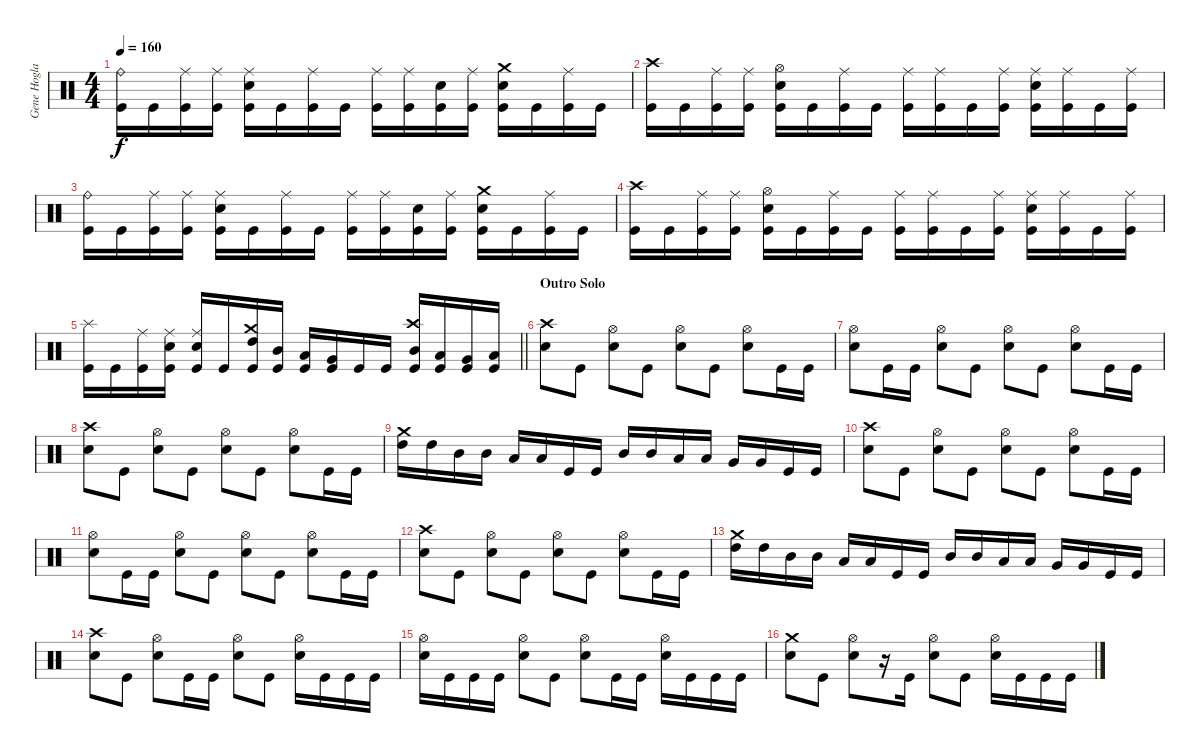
\track ("Gene Hoglan" "Gene Hogla") {instrument percussion}
\staff {score}
\articulation defaults
\ts (4 4)
\tempo 160
\clef neutral
\ks c
("Ride (bell)" "Kick (hit)").16{dy f} "Kick (hit)".16 ("Ride (middle)" "Kick (hit)").16 ("Ride (middle)" "Kick (hit)").16 ("Ride (middle)" "Electric Snare (hit)" "Kick (hit)").16 "Kick (hit)".16 ("Ride (middle)" "Kick (hit)").16 "Kick (hit)".16 ("Ride (middle)" "Kick (hit)").16 ("Ride (middle)" "Kick (hit)").16 ("Electric Snare (hit)" "Kick (hit)").16 ("Ride (middle)" "Kick (hit)").16 ("Crash medium (hit)" "Electric Snare (hit)" "Kick (hit)").16 "Kick (hit)".16 ("Ride (middle)" "Kick (hit)").16 "Kick (hit)".16 |
("Crash high (hit)" "Kick (hit)").16 "Kick (hit)".16 ("Ride (middle)" "Kick (hit)").16 ("Ride (middle)" "Kick (hit)").16 ("Hi-Hat (open)" "Electric Snare (hit)" "Kick (hit)").16 "Kick (hit)".16 ("Ride (middle)" "Kick (hit)").16 "Kick (hit)".16 ("Ride (middle)" "Kick (hit)").16 ("Ride (middle)" "Kick (hit)").16 "Kick (hit)".16 ("Ride (middle)" "Kick (hit)").16 ("Ride (middle)" "Electric Snare (hit)" "Kick (hit)").16 ("Ride (middle)" "Kick (hit)").16 "Kick (hit)".16 ("Ride (middle)" "Kick (hit)").16 |
("Ride (bell)" "Kick (hit)").16 "Kick (hit)".16 ("Ride (middle)" "Kick (hit)").16 ("Ride (middle)" "Kick (hit)").16 ("Ride (middle)" "Electric Snare (hit)" "Kick (hit)").16 "Kick (hit)".16 ("Ride (middle)" "Kick (hit)").16 "Kick (hit)".16 ("Ride (middle)" "Kick (hit)").16 ("Ride (middle)" "Kick (hit)").16 ("Electric Snare (hit)" "Kick (hit)").16 ("Ride (middle)" "Kick (hit)").16 ("Crash medium (hit)" "Electric Snare (hit)" "Kick (hit)").16 "Kick (hit)".16 ("Ride (middle)" "Kick (hit)").16 "Kick (hit)".16 |
("Crash high (hit)" "Kick (hit)").16 "Kick (hit)".16 ("Ride (middle)" "Kick (hit)").16 ("Ride (middle)" "Kick (hit)").16 ("Hi-Hat (open)" "Electric Snare (hit)" "Kick (hit)").16 "Kick (hit)".16 ("Ride (middle)" "Kick (hit)").16 "Kick (hit)".16 ("Ride (middle)" "Kick (hit)").16 ("Ride (middle)" "Kick (hit)").16 "Kick (hit)".16 ("Ride (middle)" "Kick (hit)").16 ("Ride (middle)" "Electric Snare (hit)" "Kick (hit)").16 ("Ride (middle)" "Kick (hit)").16 "Kick (hit)".16 ("Ride (middle)" "Kick (hit)").16 |
\barLineRight lightlight
("Splash (hit)" "Kick (hit)").16 "Kick (hit)".16 ("Ride (middle)" "Kick (hit)").16 ("Ride (middle)" "Electric Snare (hit)" "Kick (hit)").16 ("Ride (middle)" "Electric Snare (hit)" "Kick (hit)").16 "Kick (hit)".16 ("Crash medium (hit)" "High Tom (hit)" "Kick (hit)").16 ("Mid Tom (hit)" "Kick (hit)").16 ("Low Tom (hit)" "Kick (hit)").16 ("Very Low Tom (hit)" "Kick (hit)").16 "Kick (hit)".16 "Kick (hit)".16 ("Crash high (hit)" "Mid Tom (hit)" "Kick (hit)").16 ("Low Tom (hit)" "Kick (hit)").16 ("Very Low Tom (hit)" "Kick (hit)").16 ("Low Floor Tom (hit)" "Kick (hit)").16 |
\section ("" "Outro Solo")
("Crash high (hit)" "Electric Snare (hit)").8 "Kick (hit)".8 ("Hi-Hat (open)" "Electric Snare (hit)").8 "Kick (hit)".8 ("Hi-Hat (open)" "Electric Snare (hit)").8 "Kick (hit)".8 ("Hi-Hat (open)" "Electric Snare (hit)").8 "Kick (hit)".16 "Kick (hit)".16 |
("Hi-Hat (open)" "Electric Snare (hit)").8 "Kick (hit)".16 "Kick (hit)".16 ("Hi-Hat (open)" "Electric Snare (hit)").8 "Kick (hit)".8 ("Hi-Hat (open)" "Electric Snare (hit)").8 "Kick (hit)".8 ("Hi-Hat (open)" "Electric Snare (hit)").8 "Kick (hit)".16 "Kick (hit)".16 |
("Crash high (hit)" "Electric Snare (hit)").8 "Kick (hit)".8 ("Hi-Hat (open)" "Electric Snare (hit)").8 "Kick (hit)".8 ("Hi-Hat (open)" "Electric Snare (hit)").8 "Kick (hit)".8 ("Hi-Hat (open)" "Electric Snare (hit)").8 "Kick (hit)".16 "Kick (hit)".16 |
("Crash medium (hit)" "High Tom (hit)").16 "High Tom (hit)".16 "Mid Tom (hit)".16 "Mid Tom (hit)".16 "Low Tom (hit)".16 "Low Tom (hit)".16 "Kick (hit)".16 "Kick (hit)".16 "Mid Tom (hit)".16 "Mid Tom (hit)".16 "Low Tom (hit)".16 "Low Tom (hit)".16 "Very Low Tom (hit)".16 "Very Low Tom (hit)".16 "Kick (hit)".16 "Kick (hit)".16 |
("Crash high (hit)" "Electric Snare (hit)").8 "Kick (hit)".8 ("Hi-Hat (open)" "Electric Snare (hit)").8 "Kick (hit)".8 ("Hi-Hat (open)" "Electric Snare (hit)").8 "Kick (hit)".8 ("Hi-Hat (open)" "Electric Snare (hit)").8 "Kick (hit)".16 "Kick (hit)".16 |
("Hi-Hat (open)" "Electric Snare (hit)").8 "Kick (hit)".16 "Kick (hit)".16 ("Hi-Hat (open)" "Electric Snare (hit)").8 "Kick (hit)".8 ("Hi-Hat (open)" "Electric Snare (hit)").8 "Kick (hit)".8 ("Hi-Hat (open)" "Electric Snare (hit)").8 "Kick (hit)".16 "Kick (hit)".16 |
("Crash high (hit)" "Electric Snare (hit)").8 "Kick (hit)".8 ("Hi-Hat (open)" "Electric Snare (hit)").8 "Kick (hit)".8 ("Hi-Hat (open)" "Electric Snare (hit)").8 "Kick (hit)".8 ("Hi-Hat (open)" "Electric Snare (hit)").8 "Kick (hit)".16 "Kick (hit)".16 |
("Crash medium (hit)" "High Tom (hit)").16 "High Tom (hit)".16 "Mid Tom (hit)".16 "Mid Tom (hit)".16 "Low Tom (hit)".16 "Low Tom (hit)".16 "Kick (hit)".16 "Kick (hit)".16 "Mid Tom (hit)".16 "Mid Tom (hit)".16 "Low Tom (hit)".16 "Low Tom (hit)".16 "Very Low Tom (hit)".16 "Very Low Tom (hit)".16 "Kick (hit)".16 "Kick (hit)".16 |
("Crash high (hit)" "Electric Snare (hit)").8 "Kick (hit)".8 ("Hi-Hat (open)" "Electric Snare (hit)").8 "Kick (hit)".16 "Kick (hit)".16 ("Hi-Hat (open)" "Electric Snare (hit)").8 "Kick (hit)".8 ("Hi-Hat (open)" "Electric Snare (hit)").16 "Kick (hit)".16 "Kick (hit)".16 "Kick (hit)".16 |
("Hi-Hat (open)" "Electric Snare (hit)").16 "Kick (hit)".16 "Kick (hit)".16 "Kick (hit)".16 ("Hi-Hat (open)" "Electric Snare (hit)").8 "Kick (hit)".8 ("Hi-Hat (open)" "Electric Snare (hit)").8 "Kick (hit)".16 "Kick (hit)".16 ("Hi-Hat (open)" "Electric Snare (hit)").16 "Kick (hit)".16 "Kick (hit)".16 "Kick (hit)".16 |
("Crash medium (hit)" "Electric Snare (hit)").8 "Kick (hit)".8 ("Hi-Hat (open)" "Electric Snare (hit)").8 r.16 "Kick (hit)".16 ("Hi-Hat (open)" "Electric Snare (hit)").8 "Kick (hit)".8 ("Hi-Hat (open)" "Electric Snare (hit)").16 "Kick (hit)".16 "Kick (hit)".16 "Kick (hit)".16
